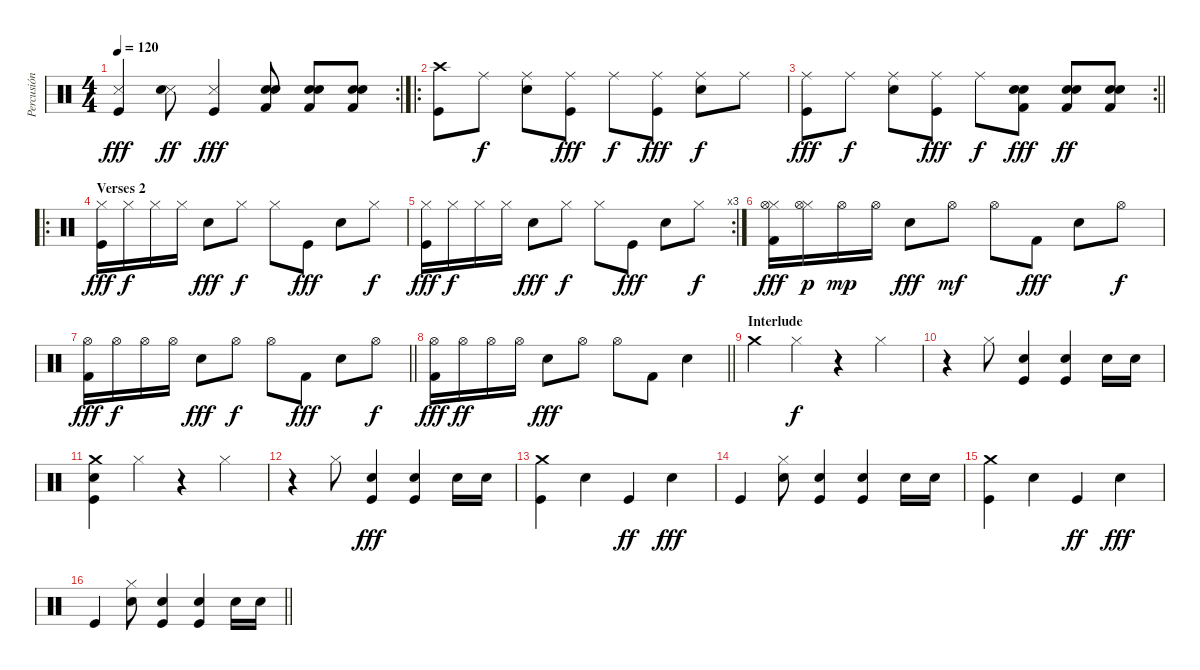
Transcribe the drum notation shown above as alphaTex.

\track ("Percusión" "Percusión") {instrument percussion}
\staff {score}
\articulation defaults
\rc 2
\ts (4 4)
\tempo 120
\clef neutral
\ks c
("Snare (side stick) 3" "Kick (hit)").4{dy fff} ("Snare (side stick) 3" "Electric Snare (hit)").8{dy ff} ("Snare (side stick) 3" "Kick (hit)").4{dy fff} ("Electric Snare (hit)" "Electric Snare (hit)" "Kick (hit) 2").8 ("Electric Snare (hit)" "Electric Snare (hit)" "Kick (hit) 2").8 ("Electric Snare (hit)" "Electric Snare (hit)" "Kick (hit) 2").8 |
\ro
("Crash high (hit)" "Kick (hit)").8 "Ride (middle)".8{dy f} ("Ride (middle)" "Electric Snare (hit)").8 ("Ride (middle)" "Kick (hit)").8{dy fff} "Ride (middle)".8{dy f} ("Ride (middle)" "Kick (hit)").8{dy fff} ("Ride (middle)" "Electric Snare (hit)").8{dy f} "Ride (middle)".8 |
\rc 2
\barLineRight lightlight
("Ride (middle)" "Kick (hit)").8{dy fff} "Ride (middle)".8{dy f} ("Ride (middle)" "Electric Snare (hit)").8 ("Ride (middle)" "Kick (hit)").8{dy fff} "Ride (middle)".8{dy f} ("Electric Snare (hit)" "Electric Snare (hit)" "Kick (hit) 2").8{dy fff} ("Electric Snare (hit)" "Electric Snare (hit)" "Kick (hit) 2").8{dy ff} ("Electric Snare (hit)" "Electric Snare (hit)" "Kick (hit) 2").8 |
\ro
\section ("" "Verses 2")
("Hi-Hat (closed)" "Kick (hit)").16{dy fff} "Hi-Hat (closed)".16{dy f} "Hi-Hat (closed)".16 "Hi-Hat (closed)".16 "Electric Snare (hit)".8{dy fff} "Hi-Hat (closed)".8{dy f} "Hi-Hat (closed)".8 "Kick (hit)".8{dy fff} "Electric Snare (hit)".8 "Hi-Hat (closed)".8{dy f} |
\rc 3
("Hi-Hat (closed)" "Kick (hit)").16{dy fff} "Hi-Hat (closed)".16{dy f} "Hi-Hat (closed)".16 "Hi-Hat (closed)".16 "Electric Snare (hit)".8{dy fff} "Hi-Hat (closed)".8{dy f} "Hi-Hat (closed)".8 "Kick (hit)".8{dy fff} "Electric Snare (hit)".8 "Hi-Hat (closed)".8{dy f} |
("Hi-Hat (closed)" "Hi-Hat (open)" "Kick (hit) 2").16{dy fff} ("Hi-Hat (closed)" "Hi-Hat (open)").16{dy p} "Hi-Hat (open)".16{dy mp} "Hi-Hat (open)".16 "Electric Snare (hit)".8{dy fff} "Hi-Hat (open)".8{dy mf} "Hi-Hat (open)".8 "Kick (hit) 2".8{dy fff} "Electric Snare (hit)".8 "Hi-Hat (open)".8{dy f} |
\barLineRight lightlight
("Hi-Hat (open)" "Kick (hit) 2").16{dy fff} "Hi-Hat (open)".16{dy f} "Hi-Hat (open)".16 "Hi-Hat (open)".16 "Electric Snare (hit)".8{dy fff} "Hi-Hat (open)".8{dy f} "Hi-Hat (open)".8 "Kick (hit) 2".8{dy fff} "Electric Snare (hit)".8 "Hi-Hat (open)".8{dy f} |
\barLineRight lightlight
("Hi-Hat (open)" "Kick (hit) 2").16{dy fff} "Hi-Hat (open)".16{dy ff} "Hi-Hat (open)".16 "Hi-Hat (open)".16 "Electric Snare (hit)".8{dy fff} "Hi-Hat (open)".8 "Hi-Hat (open)".8 "Kick (hit) 2".8 "Electric Snare (hit)".4 |
\section ("" "Interlude")
"Crash medium (hit)".4 "Hi-Hat (closed)".4{dy f} r.4 "Hi-Hat (closed)".4 |
r.4 "Hi-Hat (closed)".8 ("Electric Snare (hit)" "Kick (hit)").4 ("Electric Snare (hit)" "Kick (hit)").4 "Electric Snare (hit)".16 "Electric Snare (hit)".16 |
("Crash medium (hit)" "Electric Snare (hit)" "Kick (hit)").4 "Hi-Hat (closed)".4 r.4 "Hi-Hat (closed)".4 |
r.4 "Hi-Hat (closed)".8 ("Electric Snare (hit)" "Kick (hit)").4{dy fff} ("Electric Snare (hit)" "Kick (hit)").4 "Electric Snare (hit)".16 "Electric Snare (hit)".16 |
("Crash medium (hit)" "Kick (hit)").4 "Electric Snare (hit)".4 "Kick (hit)".4{dy ff} "Electric Snare (hit)".4{dy fff} |
"Kick (hit)".4 ("Hi-Hat (closed)" "Electric Snare (hit)").8 ("Electric Snare (hit)" "Kick (hit)").4 ("Electric Snare (hit)" "Kick (hit)").4 "Electric Snare (hit)".16 "Electric Snare (hit)".16 |
("Crash medium (hit)" "Kick (hit)").4 "Electric Snare (hit)".4 "Kick (hit)".4{dy ff} "Electric Snare (hit)".4{dy fff} |
\barLineRight lightlight "Kick (hit)".4
("Hi-Hat (closed)" "Electric Snare (hit)").8 ("Electric Snare (hit)" "Kick (hit)").4 ("Electric Snare (hit)" "Kick (hit)").4 "Electric Snare (hit)".16 "Electric Snare (hit)".16
